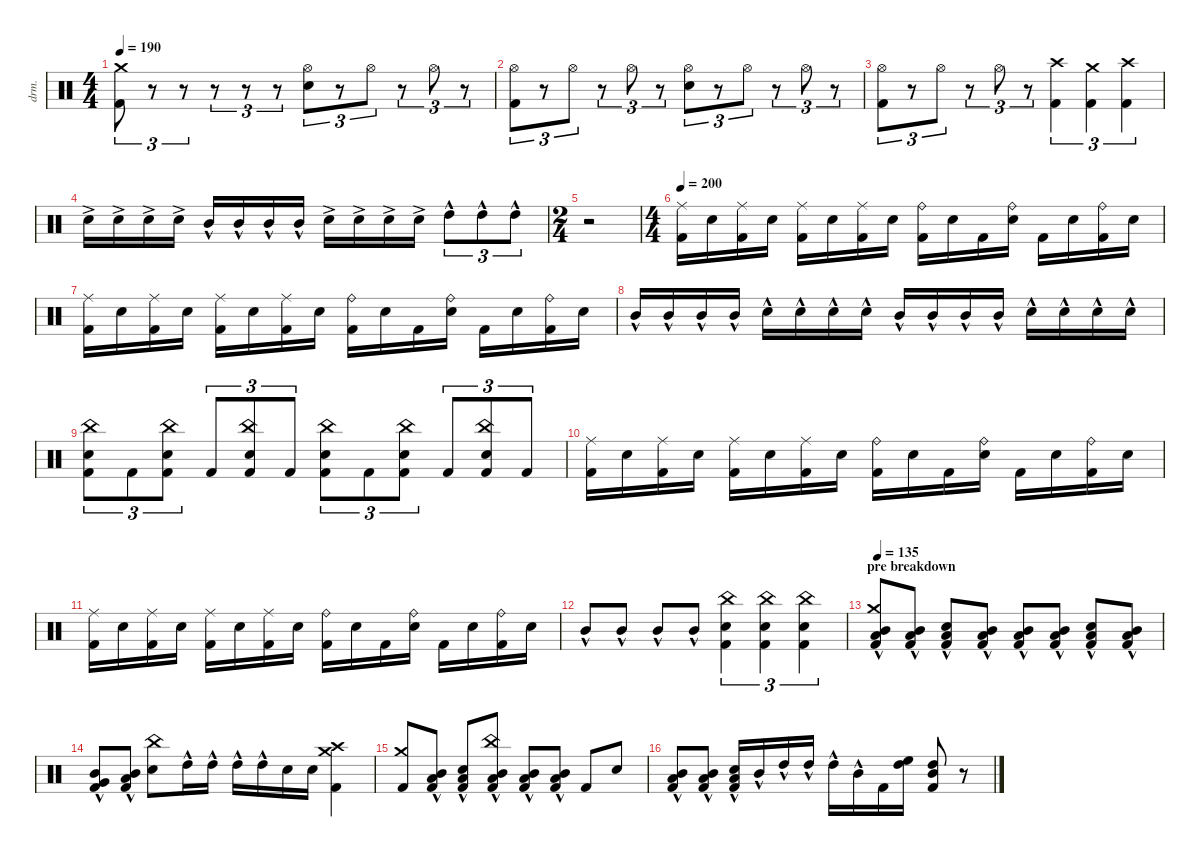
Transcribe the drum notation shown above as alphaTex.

\defaultSystemsLayout 4
\hideDynamics
\bracketExtendMode nobrackets
\otherSystemsTrackNameOrientation horizontal
\track ("Drumkit" "drm.") {instrument percussion}
\staff {score}
\articulation defaults
\ts (4 4)
\tempo 190
\clef neutral
\ks c
("Kick (hit) 2" "Crash medium (hit)").8{tu (3 2) dy mf beam Down} r.8{tu (3 2) beam Down} r.8{tu (3 2) beam Down} r.8{tu (3 2) beam Down} r.8{tu (3 2) beam Down} r.8{tu (3 2) beam Down} ("Snare (hit) 2" "Hi-Hat (open)").8{tu (3 2) beam Down} r.8{tu (3 2) beam Down} "Hi-Hat (open)".8{tu (3 2) beam Down} r.8{tu (3 2) beam Down} "Hi-Hat (open)".8{tu (3 2) beam Down} r.8{tu (3 2) beam Down} |
("Hi-Hat (open)" "Kick (hit) 2").8{tu (3 2) beam Down} r.8{tu (3 2) beam Down} "Hi-Hat (open)".8{tu (3 2) beam Down} r.8{tu (3 2) beam Down} "Hi-Hat (open)".8{tu (3 2) beam Down} r.8{tu (3 2) beam Down} ("Hi-Hat (open)" "Snare (hit) 2").8{tu (3 2) beam Down} r.8{tu (3 2) beam Down} "Hi-Hat (open)".8{tu (3 2) beam Down} r.8{tu (3 2) beam Down} "Hi-Hat (open)".8{tu (3 2) beam Down} r.8{tu (3 2) beam Down} |
("Hi-Hat (open)" "Kick (hit) 2").8{tu (3 2) beam Down} r.8{tu (3 2) beam Down} "Hi-Hat (open)".8{tu (3 2) beam Down} r.8{tu (3 2) beam Down} "Hi-Hat (open)".8{tu (3 2) beam Down} r.8{tu (3 2) beam Down} ("Kick (hit) 2" "Crash high (hit)").4{tu (3 2) beam Down} ("Kick (hit) 2" "Crash medium (hit)").4{tu (3 2) beam Down} ("Kick (hit) 2" "Crash high (hit)").4{tu (3 2) beam Down} |
"Snare (hit) 2"{ac}.16{beam Down} "Snare (hit) 2"{ac}.16{beam Down} "Snare (hit) 2"{ac}.16{beam Down} "Snare (hit) 2"{ac}.16{beam Down} "Mid Tom (hit)"{hac}.16{beam Up} "Mid Tom (hit)"{hac}.16{beam Up} "Mid Tom (hit)"{hac}.16{beam Up} "Mid Tom (hit)"{hac}.16{beam Up} "Snare (hit) 2"{ac}.16{beam Down} "Snare (hit) 2"{ac}.16{beam Down} "Snare (hit) 2"{ac}.16{beam Down} "Snare (hit) 2"{ac}.16{beam Down} "High Tom (hit)"{hac}.8{tu (3 2) beam Down} "High Tom (hit)"{hac}.8{tu (3 2) beam Down} "High Tom (hit)"{hac}.8{tu (3 2) beam Down} |
\ts (2 4)
\beaming (8 2 2)
r.2{beam Down} |
\ts (4 4)
\beaming (8 2 2 2 2)
\tempo 200
("Kick (hit) 2" "Ride (middle)").16{beam Down} "Snare (hit) 2".16{beam Down} ("Kick (hit) 2" "Ride (middle)").16{beam Down} "Snare (hit) 2".16{beam Down} ("Kick (hit) 2" "Ride (middle)").16{beam Down} "Snare (hit) 2".16{beam Down} ("Kick (hit) 2" "Ride (middle)").16{beam Down} "Snare (hit) 2".16{beam Down} ("Kick (hit) 2" "Ride (bell)").16{beam Down} "Snare (hit) 2".16{beam Down} "Kick (hit) 2".16{beam Down} ("Snare (hit) 2" "Ride (bell)").16{beam Down} "Kick (hit) 2".16{beam Down} "Snare (hit) 2".16{beam Down} ("Kick (hit) 2" "Ride (bell)").16{beam Down} "Snare (hit) 2".16{beam Down} |
("Kick (hit) 2" "Ride (middle)").16{beam Down} "Snare (hit) 2".16{beam Down} ("Kick (hit) 2" "Ride (middle)").16{beam Down} "Snare (hit) 2".16{beam Down} ("Kick (hit) 2" "Ride (middle)").16{beam Down} "Snare (hit) 2".16{beam Down} ("Kick (hit) 2" "Ride (middle)").16{beam Down} "Snare (hit) 2".16{beam Down} ("Kick (hit) 2" "Ride (bell)").16{beam Down} "Snare (hit) 2".16{beam Down} "Kick (hit) 2".16{beam Down} ("Snare (hit) 2" "Ride (bell)").16{beam Down} "Kick (hit) 2".16{beam Down} "Snare (hit) 2".16{beam Down} ("Kick (hit) 2" "Ride (bell)").16{beam Down} "Snare (hit) 2".16{beam Down} |
"Mid Tom (hit)"{hac}.16{beam Up} "Mid Tom (hit)"{hac}.16{beam Up} "Mid Tom (hit)"{hac}.16{beam Up} "Mid Tom (hit)"{hac}.16{beam Up} "Snare (hit) 2"{hac}.16{beam Down} "Snare (hit) 2"{hac}.16{beam Down} "Snare (hit) 2"{hac}.16{beam Down} "Snare (hit) 2"{hac}.16{beam Down} "Mid Tom (hit)"{hac}.16{beam Up} "Mid Tom (hit)"{hac}.16{beam Up} "Mid Tom (hit)"{hac}.16{beam Up} "Mid Tom (hit)"{hac}.16{beam Up} "Snare (hit) 2"{hac}.16{beam Down} "Snare (hit) 2"{hac}.16{beam Down} "Snare (hit) 2"{hac}.16{beam Down} "Snare (hit) 2"{hac}.16{beam Down} |
("Kick (hit) 2" "Snare (hit) 2" "China (hit)").8{tu (3 2) beam Down} "Kick (hit) 2".8{tu (3 2) beam Down} ("Kick (hit) 2" "Snare (hit) 2" "China (hit)").8{tu (3 2) beam Down} "Kick (hit) 2".8{tu (3 2) beam Up} ("Kick (hit) 2" "Snare (hit) 2" "China (hit)").8{tu (3 2) beam Up} "Kick (hit) 2".8{tu (3 2) beam Up} ("Kick (hit) 2" "Snare (hit) 2" "China (hit)").8{tu (3 2) beam Down} "Kick (hit) 2".8{tu (3 2) beam Down} ("Kick (hit) 2" "Snare (hit) 2" "China (hit)").8{tu (3 2) beam Down} "Kick (hit) 2".8{tu (3 2) beam Up} ("Kick (hit) 2" "Snare (hit) 2" "China (hit)").8{tu (3 2) beam Up} "Kick (hit) 2".8{tu (3 2) beam Up} |
("Kick (hit) 2" "Ride (middle)").16{beam Down} "Snare (hit) 2".16{beam Down} ("Kick (hit) 2" "Ride (middle)").16{beam Down} "Snare (hit) 2".16{beam Down} ("Kick (hit) 2" "Ride (middle)").16{beam Down} "Snare (hit) 2".16{beam Down} ("Kick (hit) 2" "Ride (middle)").16{beam Down} "Snare (hit) 2".16{beam Down} ("Kick (hit) 2" "Ride (bell)").16{beam Down} "Snare (hit) 2".16{beam Down} "Kick (hit) 2".16{beam Down} ("Snare (hit) 2" "Ride (bell)").16{beam Down} "Kick (hit) 2".16{beam Down} "Snare (hit) 2".16{beam Down} ("Kick (hit) 2" "Ride (bell)").16{beam Down} "Snare (hit) 2".16{beam Down} |
("Kick (hit) 2" "Ride (middle)").16{beam Down} "Snare (hit) 2".16{beam Down} ("Kick (hit) 2" "Ride (middle)").16{beam Down} "Snare (hit) 2".16{beam Down} ("Kick (hit) 2" "Ride (middle)").16{beam Down} "Snare (hit) 2".16{beam Down} ("Kick (hit) 2" "Ride (middle)").16{beam Down} "Snare (hit) 2".16{beam Down} ("Kick (hit) 2" "Ride (bell)").16{beam Down} "Snare (hit) 2".16{beam Down} "Kick (hit) 2".16{beam Down} ("Snare (hit) 2" "Ride (bell)").16{beam Down} "Kick (hit) 2".16{beam Down} "Snare (hit) 2".16{beam Down} ("Kick (hit) 2" "Ride (bell)").16{beam Down} "Snare (hit) 2".16{beam Down} |
"Mid Tom (hit)"{hac}.8{beam Up} "Mid Tom (hit)"{hac}.8{beam Up} "Mid Tom (hit)"{hac}.8{beam Up} "Mid Tom (hit)"{hac}.8{beam Up} ("Kick (hit) 2" "Snare (hit) 2" "China (hit)").4{tu (3 2) beam Down} ("Kick (hit) 2" "Snare (hit) 2" "China (hit)").4{tu (3 2) beam Down} ("Kick (hit) 2" "Snare (hit) 2" "China (hit)").4{tu (3 2) beam Down} |
\section ("" "pre breakdown")
\tempo 135
("Crash medium (hit)" "Kick (hit) 2" "Low Tom (hit)"{hac} "Mid Tom (hit)"{hac}).8{beam Up} ("Kick (hit) 2" "Low Tom (hit)"{hac} "Mid Tom (hit)"{hac}).8{beam Up} ("Kick (hit) 2" "Low Tom (hit)"{hac} "Snare (hit) 2").8{beam Up} ("Kick (hit) 2" "Low Tom (hit)"{hac} "Mid Tom (hit)"{hac}).8{beam Up} ("Kick (hit) 2" "Low Tom (hit)"{hac} "Mid Tom (hit)"{hac}).8{beam Up} ("Kick (hit) 2" "Low Tom (hit)"{hac} "Mid Tom (hit)"{hac}).8{beam Up} ("Kick (hit) 2" "Snare (hit) 2" "Low Tom (hit)"{hac}).8{beam Up} ("Kick (hit) 2" "Low Tom (hit)"{hac} "Mid Tom (hit)"{hac}).8{beam Up} |
("Kick (hit) 2"{hac} "Very Low Tom (hit)"{hac} "Mid Tom (hit)"{hac}).8{beam Up} ("Kick (hit) 2"{hac} "Low Tom (hit)"{hac} "Mid Tom (hit)"{hac}).8{beam Up} ("Snare (hit) 2" "China (hit)").8{beam Down} "High Tom (hit)"{hac}.16{beam Down} "High Tom (hit)"{hac}.16{beam Down} "High Tom (hit)"{hac}.16{beam Down} "High Tom (hit)"{hac}.16{beam Down} "Snare (hit) 2".16{beam Down} "Snare (hit) 2".16{beam Down} ("Kick (hit) 2" "Crash high (hit)" "Crash medium (hit)").4{beam Down} |
("Crash medium (hit)" "Kick (hit) 2").8{beam Up} ("Kick (hit) 2" "Low Tom (hit)"{hac} "Mid Tom (hit)"{hac}).8{beam Up} ("Kick (hit) 2" "Low Tom (hit)"{hac} "Snare (hit) 2").8{beam Up} ("Kick (hit) 2" "Low Tom (hit)"{hac} "Mid Tom (hit)"{hac} "China (hit)").8{beam Up} ("Kick (hit) 2" "Low Tom (hit)"{hac} "Mid Tom (hit)"{hac}).8{beam Up} ("Kick (hit) 2" "Low Tom (hit)"{hac} "Mid Tom (hit)"{hac}).8{beam Up} "Kick (hit) 2".8{beam Up} "Snare (hit) 2".8{beam Up} |
("Kick (hit) 2" "Low Tom (hit)"{hac} "Mid Tom (hit)"{hac}).8{beam Up} ("Kick (hit) 2" "Low Tom (hit)"{hac} "Mid Tom (hit)"{hac}).8{beam Up} ("Kick (hit) 2" "Snare (hit) 2" "Low Tom (hit)"{hac}).16{beam Up} "Mid Tom (hit)"{hac}.16{beam Up} "High Tom (hit)"{hac}.16{beam Up} "High Tom (hit)"{hac}.16{beam Up} "High Tom (hit)"{hac}.16{beam Down} "Mid Tom (hit)"{hac}.16{beam Down} "Kick (hit) 2".16{beam Down} ("High Floor Tom (hit)" "High Tom (hit)").16{beam Down} ("Kick (hit) 2" "Mid Tom (hit)" "High Tom (hit)").8{beam Up} r.8{beam Up}
